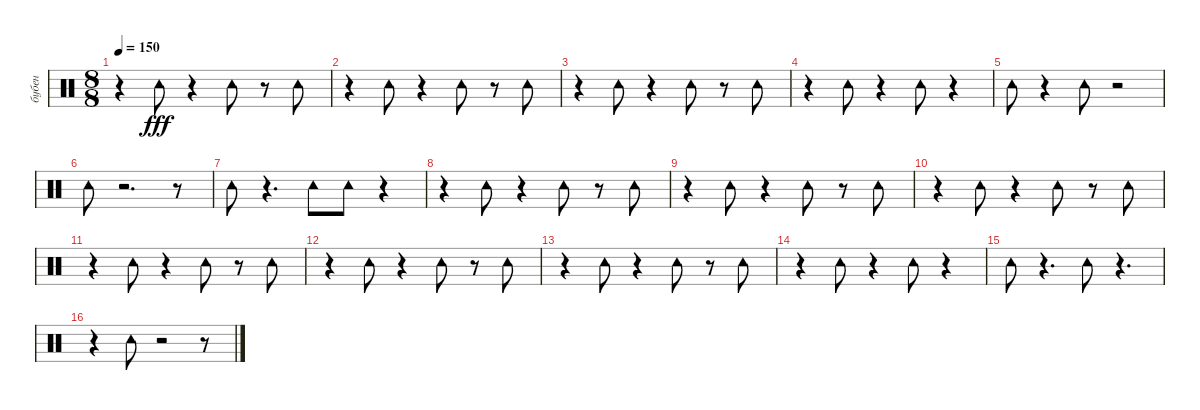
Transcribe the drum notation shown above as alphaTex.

\track ("бубен" "бубен") {instrument percussion}
\staff {score}
\articulation defaults
\ts (8 8)
\tempo 150
\clef neutral
\ks c
r.4{dy fff} "Tambourine (hit)".8 r.4 "Tambourine (hit)".8 r.8 "Tambourine (hit)".8 |
r.4 "Tambourine (hit)".8 r.4 "Tambourine (hit)".8 r.8 "Tambourine (hit)".8 |
r.4 "Tambourine (hit)".8 r.4 "Tambourine (hit)".8 r.8 "Tambourine (hit)".8 |
r.4 "Tambourine (hit)".8 r.4 "Tambourine (hit)".8 r.4 |
"Tambourine (hit)".8 r.4 "Tambourine (hit)".8 r.2 |
"Tambourine (hit)".8 r.2{d} r.8 |
"Tambourine (hit)".8 r.4{d} "Tambourine (hit)".8 "Tambourine (hit)".8 r.4 |
r.4 "Tambourine (hit)".8 r.4 "Tambourine (hit)".8 r.8 "Tambourine (hit)".8 |
r.4 "Tambourine (hit)".8 r.4 "Tambourine (hit)".8 r.8 "Tambourine (hit)".8 |
r.4 "Tambourine (hit)".8 r.4 "Tambourine (hit)".8 r.8 "Tambourine (hit)".8 |
r.4 "Tambourine (hit)".8 r.4 "Tambourine (hit)".8 r.8 "Tambourine (hit)".8 |
r.4 "Tambourine (hit)".8 r.4 "Tambourine (hit)".8 r.8 "Tambourine (hit)".8 |
r.4 "Tambourine (hit)".8 r.4 "Tambourine (hit)".8 r.8 "Tambourine (hit)".8 |
r.4 "Tambourine (hit)".8 r.4 "Tambourine (hit)".8 r.4 |
"Tambourine (hit)".8 r.4{d} "Tambourine (hit)".8 r.4{d} |
r.4 "Tambourine (hit)".8 r.2 r.8
